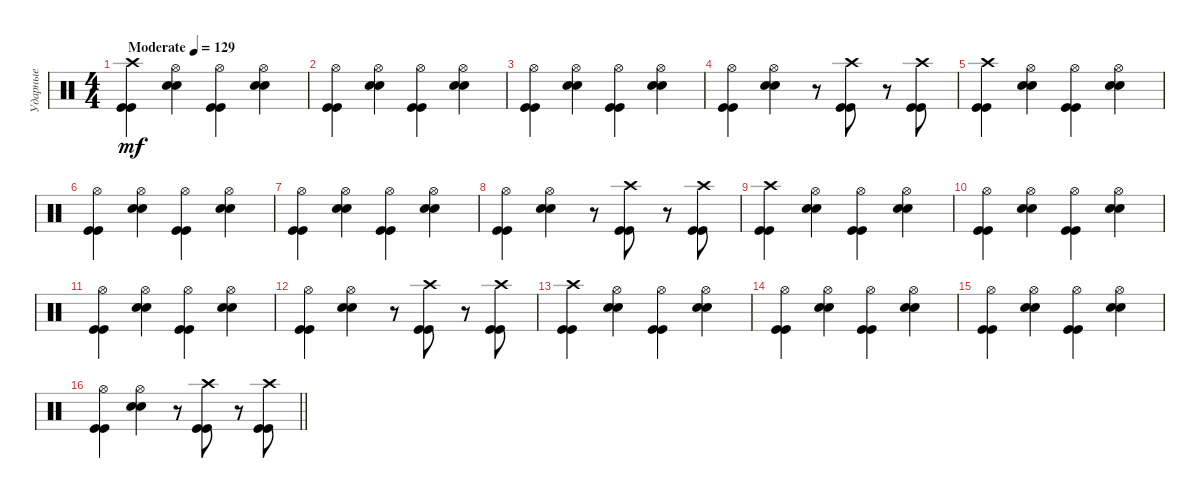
\track ("Ударные" "Ударные") {instrument percussion}
\staff {score}
\articulation defaults
\ts (4 4)
\tempo (129 "Moderate")
\clef neutral
\ks c
("Crash high (hit)" "Kick (hit)" "Kick (hit)").4{dy mf} ("Hi-Hat (open)" "Snare (hit) 2" "Snare (hit) 2").4 ("Hi-Hat (open)" "Kick (hit)" "Kick (hit)").4 ("Hi-Hat (open)" "Snare (hit) 2" "Snare (hit) 2").4 |
("Hi-Hat (open)" "Kick (hit)" "Kick (hit)").4 ("Hi-Hat (open)" "Snare (hit) 2" "Snare (hit) 2").4 ("Hi-Hat (open)" "Kick (hit)" "Kick (hit)").4 ("Hi-Hat (open)" "Snare (hit) 2" "Snare (hit) 2").4 |
("Hi-Hat (open)" "Kick (hit)" "Kick (hit)").4 ("Hi-Hat (open)" "Snare (hit) 2" "Snare (hit) 2").4 ("Hi-Hat (open)" "Kick (hit)" "Kick (hit)").4 ("Hi-Hat (open)" "Snare (hit) 2" "Snare (hit) 2").4 |
("Hi-Hat (open)" "Kick (hit)" "Kick (hit)").4 ("Hi-Hat (open)" "Snare (hit) 2" "Snare (hit) 2").4 r.8 ("Crash high (hit)" "Kick (hit)" "Kick (hit)").8 r.8 ("Crash high (hit)" "Kick (hit)" "Kick (hit)").8 |
("Crash high (hit)" "Kick (hit)" "Kick (hit)").4 ("Hi-Hat (open)" "Snare (hit) 2" "Snare (hit) 2").4 ("Hi-Hat (open)" "Kick (hit)" "Kick (hit)").4 ("Hi-Hat (open)" "Snare (hit) 2" "Snare (hit) 2").4 |
("Hi-Hat (open)" "Kick (hit)" "Kick (hit)").4 ("Hi-Hat (open)" "Snare (hit) 2" "Snare (hit) 2").4 ("Hi-Hat (open)" "Kick (hit)" "Kick (hit)").4 ("Hi-Hat (open)" "Snare (hit) 2" "Snare (hit) 2").4 |
("Hi-Hat (open)" "Kick (hit)" "Kick (hit)").4 ("Hi-Hat (open)" "Snare (hit) 2" "Snare (hit) 2").4 ("Hi-Hat (open)" "Kick (hit)" "Kick (hit)").4 ("Hi-Hat (open)" "Snare (hit) 2" "Snare (hit) 2").4 |
("Hi-Hat (open)" "Kick (hit)" "Kick (hit)").4 ("Hi-Hat (open)" "Snare (hit) 2" "Snare (hit) 2").4 r.8 ("Crash high (hit)" "Kick (hit)" "Kick (hit)").8 r.8 ("Crash high (hit)" "Kick (hit)" "Kick (hit)").8 |
("Crash high (hit)" "Kick (hit)" "Kick (hit)").4 ("Hi-Hat (open)" "Snare (hit) 2" "Snare (hit) 2").4 ("Hi-Hat (open)" "Kick (hit)" "Kick (hit)").4 ("Hi-Hat (open)" "Snare (hit) 2" "Snare (hit) 2").4 |
("Hi-Hat (open)" "Kick (hit)" "Kick (hit)").4 ("Hi-Hat (open)" "Snare (hit) 2" "Snare (hit) 2").4 ("Hi-Hat (open)" "Kick (hit)" "Kick (hit)").4 ("Hi-Hat (open)" "Snare (hit) 2" "Snare (hit) 2").4 |
("Hi-Hat (open)" "Kick (hit)" "Kick (hit)").4 ("Hi-Hat (open)" "Snare (hit) 2" "Snare (hit) 2").4 ("Hi-Hat (open)" "Kick (hit)" "Kick (hit)").4 ("Hi-Hat (open)" "Snare (hit) 2" "Snare (hit) 2").4 |
("Hi-Hat (open)" "Kick (hit)" "Kick (hit)").4 ("Hi-Hat (open)" "Snare (hit) 2" "Snare (hit) 2").4 r.8 ("Crash high (hit)" "Kick (hit)" "Kick (hit)").8 r.8 ("Crash high (hit)" "Kick (hit)" "Kick (hit)").8 |
("Crash high (hit)" "Kick (hit)" "Kick (hit)").4 ("Hi-Hat (open)" "Snare (hit) 2" "Snare (hit) 2").4 ("Hi-Hat (open)" "Kick (hit)" "Kick (hit)").4 ("Hi-Hat (open)" "Snare (hit) 2" "Snare (hit) 2").4 |
("Hi-Hat (open)" "Kick (hit)" "Kick (hit)").4 ("Hi-Hat (open)" "Snare (hit) 2" "Snare (hit) 2").4 ("Hi-Hat (open)" "Kick (hit)" "Kick (hit)").4 ("Hi-Hat (open)" "Snare (hit) 2" "Snare (hit) 2").4 |
("Hi-Hat (open)" "Kick (hit)" "Kick (hit)").4 ("Hi-Hat (open)" "Snare (hit) 2" "Snare (hit) 2").4 ("Hi-Hat (open)" "Kick (hit)" "Kick (hit)").4 ("Hi-Hat (open)" "Snare (hit) 2" "Snare (hit) 2").4 |
\barLineRight lightlight
("Hi-Hat (open)" "Kick (hit)" "Kick (hit)").4 ("Hi-Hat (open)" "Snare (hit) 2" "Snare (hit) 2").4 r.8 ("Crash high (hit)" "Kick (hit)" "Kick (hit)").8 r.8 ("Crash high (hit)" "Kick (hit)" "Kick (hit)").8
